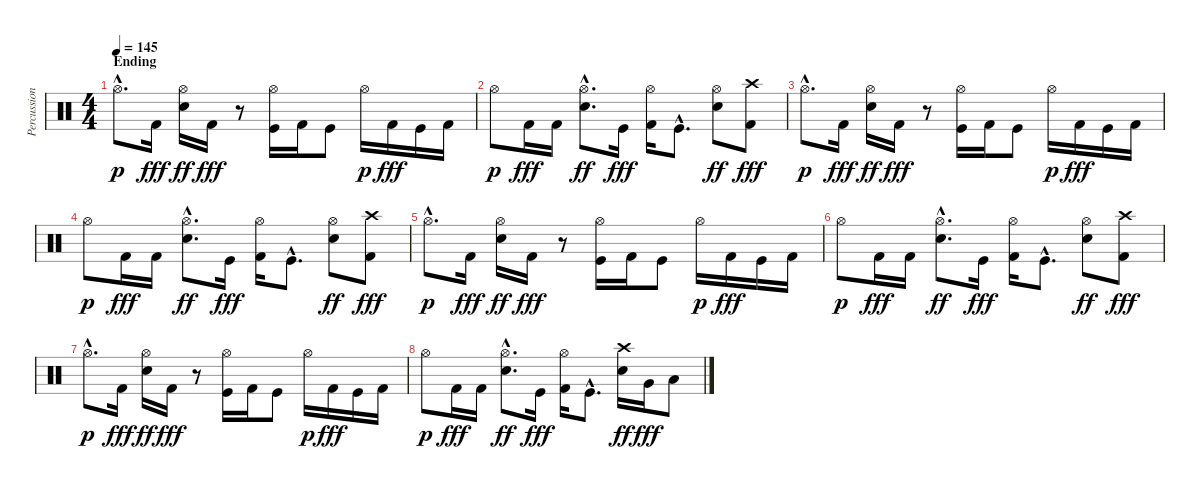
\track ("Percussion" "Percussion") {instrument percussion}
\staff {score}
\articulation defaults
\ts (4 4)
\section ("" "Ending")
\tempo 145
\clef neutral
\ks c "Hi-Hat (open)"{hac}.8{d dy p} "Kick (hit) 2".16{dy fff}
("Hi-Hat (open)" "Snare (hit) 2").16{dy ff} "Kick (hit) 2".16{dy fff} r.8 ("Hi-Hat (open)" "Kick (hit)").16 "Kick (hit) 2".16 "Kick (hit)".8 "Hi-Hat (open)".16{dy p} "Kick (hit) 2".16{dy fff} "Kick (hit)".16 "Kick (hit) 2".16 |
"Hi-Hat (open)".8{dy p} "Kick (hit) 2".16{dy fff} "Kick (hit) 2".16 ("Hi-Hat (open)"{hac} "Snare (hit) 2"{hac}).8{d dy ff} "Kick (hit)".16{dy fff} ("Hi-Hat (open)" "Kick (hit) 2").16 "Kick (hit)"{hac}.8{d} ("Hi-Hat (open)" "Snare (hit) 2").8{dy ff} ("Crash high (hit)" "Kick (hit) 2").8{dy fff} |
"Hi-Hat (open)"{hac}.8{d dy p} "Kick (hit) 2".16{dy fff} ("Hi-Hat (open)" "Snare (hit) 2").16{dy ff} "Kick (hit) 2".16{dy fff} r.8 ("Hi-Hat (open)" "Kick (hit)").16 "Kick (hit) 2".16 "Kick (hit)".8 "Hi-Hat (open)".16{dy p} "Kick (hit) 2".16{dy fff} "Kick (hit)".16 "Kick (hit) 2".16 |
"Hi-Hat (open)".8{dy p} "Kick (hit) 2".16{dy fff} "Kick (hit) 2".16 ("Hi-Hat (open)"{hac} "Snare (hit) 2"{hac}).8{d dy ff} "Kick (hit)".16{dy fff} ("Hi-Hat (open)" "Kick (hit) 2").16 "Kick (hit)"{hac}.8{d} ("Hi-Hat (open)" "Snare (hit) 2").8{dy ff} ("Crash high (hit)" "Kick (hit) 2").8{dy fff} |
"Hi-Hat (open)"{hac}.8{d dy p} "Kick (hit) 2".16{dy fff} ("Hi-Hat (open)" "Snare (hit) 2").16{dy ff} "Kick (hit) 2".16{dy fff} r.8 ("Hi-Hat (open)" "Kick (hit)").16 "Kick (hit) 2".16 "Kick (hit)".8 "Hi-Hat (open)".16{dy p} "Kick (hit) 2".16{dy fff} "Kick (hit)".16 "Kick (hit) 2".16 |
"Hi-Hat (open)".8{dy p} "Kick (hit) 2".16{dy fff} "Kick (hit) 2".16 ("Hi-Hat (open)"{hac} "Snare (hit) 2"{hac}).8{d dy ff} "Kick (hit)".16{dy fff} ("Hi-Hat (open)" "Kick (hit) 2").16 "Kick (hit)"{hac}.8{d} ("Hi-Hat (open)" "Snare (hit) 2").8{dy ff} ("Crash high (hit)" "Kick (hit) 2").8{dy fff} |
"Hi-Hat (open)"{hac}.8{d dy p} "Kick (hit) 2".16{dy fff} ("Hi-Hat (open)" "Snare (hit) 2").16{dy ff} "Kick (hit) 2".16{dy fff} r.8 ("Hi-Hat (open)" "Kick (hit)").16 "Kick (hit) 2".16 "Kick (hit)".8 "Hi-Hat (open)".16{dy p} "Kick (hit) 2".16{dy fff} "Kick (hit)".16 "Kick (hit) 2".16 |
"Hi-Hat (open)".8{dy p} "Kick (hit) 2".16{dy fff} "Kick (hit) 2".16 ("Hi-Hat (open)"{hac} "Snare (hit) 2"{hac}).8{d dy ff} "Kick (hit)".16{dy fff} ("Hi-Hat (open)" "Kick (hit) 2").16 "Kick (hit)"{hac}.8{d} ("Crash high (hit)" "Snare (hit) 2").16{dy ff} "Very Low Tom (hit)".16{dy fff} "Low Floor Tom (hit)".8
